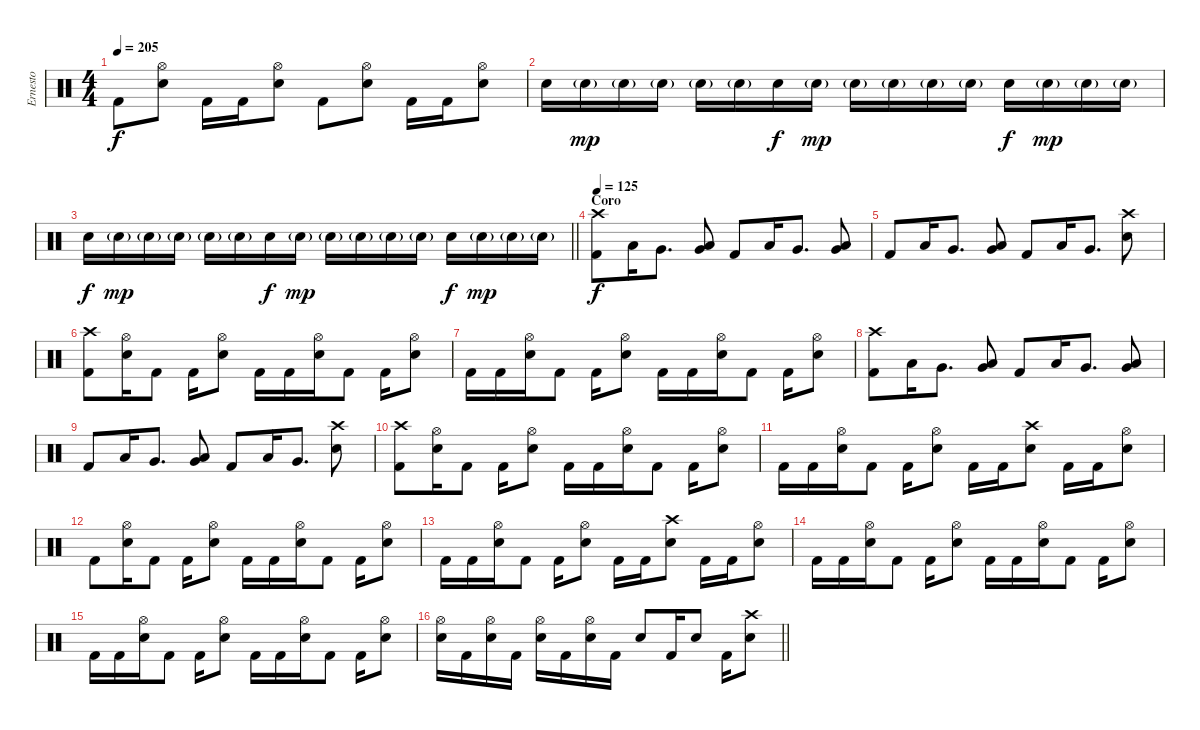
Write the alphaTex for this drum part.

\track ("Ernesto" "Ernesto") {instrument percussion}
\staff {score}
\articulation defaults
\ts (4 4)
\tempo 205
\clef neutral
\ks c "Kick (hit) 2".8{dy f}
("Hi-Hat (open)" "Electric Snare (hit)").8 "Kick (hit) 2".16 "Kick (hit) 2".16 ("Hi-Hat (open)" "Electric Snare (hit)").8 "Kick (hit) 2".8 ("Hi-Hat (open)" "Electric Snare (hit)").8 "Kick (hit) 2".16 "Kick (hit) 2".16 ("Hi-Hat (open)" "Electric Snare (hit)").8 |
"Electric Snare (hit)".16 "Electric Snare (hit)"{g}.16{dy mp} "Electric Snare (hit)"{g}.16 "Electric Snare (hit)"{g}.16 "Electric Snare (hit)"{g}.16 "Electric Snare (hit)"{g}.16 "Electric Snare (hit)".16{dy f} "Electric Snare (hit)"{g}.16{dy mp} "Electric Snare (hit)"{g}.16 "Electric Snare (hit)"{g}.16 "Electric Snare (hit)"{g}.16 "Electric Snare (hit)"{g}.16 "Electric Snare (hit)".16{dy f} "Electric Snare (hit)"{g}.16{dy mp} "Electric Snare (hit)"{g}.16 "Electric Snare (hit)"{g}.16 |
\barLineRight lightlight "Electric Snare (hit)".16{dy f} "Electric Snare (hit)"{g}.16{dy mp} "Electric Snare (hit)"{g}.16 "Electric Snare (hit)"{g}.16 "Electric Snare (hit)"{g}.16 "Electric Snare (hit)"{g}.16 "Electric Snare (hit)".16{dy f} "Electric Snare (hit)"{g}.16{dy mp} "Electric Snare (hit)"{g}.16 "Electric Snare (hit)"{g}.16 "Electric Snare (hit)"{g}.16 "Electric Snare (hit)"{g}.16 "Electric Snare (hit)".16{dy f} "Electric Snare (hit)"{g}.16{dy mp} "Electric Snare (hit)"{g}.16 "Electric Snare (hit)"{g}.16
|
\section ("" "Coro")
\tempo 125
("Crash high (hit)" "Kick (hit) 2").8{dy f} "Low Tom (hit)".16 "Very Low Tom (hit)".8{d} ("Low Tom (hit)" "Very Low Tom (hit)").8 "Kick (hit) 2".8 "Low Tom (hit)".16 "Very Low Tom (hit)".8{d} ("Low Tom (hit)" "Very Low Tom (hit)").8 |
"Kick (hit) 2".8 "Low Tom (hit)".16 "Very Low Tom (hit)".8{d} ("Low Tom (hit)" "Very Low Tom (hit)").8 "Kick (hit) 2".8 "Low Tom (hit)".16 "Very Low Tom (hit)".8{d} ("Crash high (hit)" "Electric Snare (hit)").8 |
("Crash high (hit)" "Kick (hit) 2").8 ("Hi-Hat (open)" "Electric Snare (hit)").16 "Kick (hit) 2".8 "Kick (hit) 2".16 ("Hi-Hat (open)" "Electric Snare (hit)").8 "Kick (hit) 2".16 "Kick (hit) 2".16 ("Hi-Hat (open)" "Electric Snare (hit)").16 "Kick (hit) 2".8 "Kick (hit) 2".16 ("Hi-Hat (open)" "Electric Snare (hit)").8 |
"Kick (hit) 2".16 "Kick (hit) 2".16 ("Hi-Hat (open)" "Electric Snare (hit)").16 "Kick (hit) 2".8 "Kick (hit) 2".16 ("Hi-Hat (open)" "Electric Snare (hit)").8 "Kick (hit) 2".16 "Kick (hit) 2".16 ("Hi-Hat (open)" "Electric Snare (hit)").16 "Kick (hit) 2".8 "Kick (hit) 2".16 ("Hi-Hat (open)" "Electric Snare (hit)").8 |
("Crash high (hit)" "Kick (hit) 2").8 "Low Tom (hit)".16 "Very Low Tom (hit)".8{d} ("Low Tom (hit)" "Very Low Tom (hit)").8 "Kick (hit) 2".8 "Low Tom (hit)".16 "Very Low Tom (hit)".8{d} ("Low Tom (hit)" "Very Low Tom (hit)").8 |
"Kick (hit) 2".8 "Low Tom (hit)".16 "Very Low Tom (hit)".8{d} ("Low Tom (hit)" "Very Low Tom (hit)").8 "Kick (hit) 2".8 "Low Tom (hit)".16 "Very Low Tom (hit)".8{d} ("Crash high (hit)" "Electric Snare (hit)").8 |
("Crash high (hit)" "Kick (hit) 2").8 ("Hi-Hat (open)" "Electric Snare (hit)").16 "Kick (hit) 2".8 "Kick (hit) 2".16 ("Hi-Hat (open)" "Electric Snare (hit)").8 "Kick (hit) 2".16 "Kick (hit) 2".16 ("Hi-Hat (open)" "Electric Snare (hit)").16 "Kick (hit) 2".8 "Kick (hit) 2".16 ("Hi-Hat (open)" "Electric Snare (hit)").8 |
"Kick (hit) 2".16 "Kick (hit) 2".16 ("Hi-Hat (open)" "Electric Snare (hit)").16 "Kick (hit) 2".8 "Kick (hit) 2".16 ("Hi-Hat (open)" "Electric Snare (hit)").8 "Kick (hit) 2".16 "Kick (hit) 2".16 ("Crash high (hit)" "Electric Snare (hit)").8 "Kick (hit) 2".16 "Kick (hit) 2".16 ("Hi-Hat (open)" "Electric Snare (hit)").8 |
"Kick (hit) 2".8 ("Hi-Hat (open)" "Electric Snare (hit)").16 "Kick (hit) 2".8 "Kick (hit) 2".16 ("Hi-Hat (open)" "Electric Snare (hit)").8 "Kick (hit) 2".16 "Kick (hit) 2".16 ("Hi-Hat (open)" "Electric Snare (hit)").16 "Kick (hit) 2".8 "Kick (hit) 2".16 ("Hi-Hat (open)" "Electric Snare (hit)").8 |
"Kick (hit) 2".16 "Kick (hit) 2".16 ("Hi-Hat (open)" "Electric Snare (hit)").16 "Kick (hit) 2".8 "Kick (hit) 2".16 ("Hi-Hat (open)" "Electric Snare (hit)").8 "Kick (hit) 2".16 "Kick (hit) 2".16 ("Crash high (hit)" "Electric Snare (hit)").8 "Kick (hit) 2".16 "Kick (hit) 2".16 ("Hi-Hat (open)" "Electric Snare (hit)").8 |
"Kick (hit) 2".16 "Kick (hit) 2".16 ("Hi-Hat (open)" "Electric Snare (hit)").16 "Kick (hit) 2".8 "Kick (hit) 2".16 ("Hi-Hat (open)" "Electric Snare (hit)").8 "Kick (hit) 2".16 "Kick (hit) 2".16 ("Hi-Hat (open)" "Electric Snare (hit)").16 "Kick (hit) 2".8 "Kick (hit) 2".16 ("Hi-Hat (open)" "Electric Snare (hit)").8 |
"Kick (hit) 2".16 "Kick (hit) 2".16 ("Hi-Hat (open)" "Electric Snare (hit)").16 "Kick (hit) 2".8 "Kick (hit) 2".16 ("Hi-Hat (open)" "Electric Snare (hit)").8 "Kick (hit) 2".16 "Kick (hit) 2".16 ("Hi-Hat (open)" "Electric Snare (hit)").16 "Kick (hit) 2".8 "Kick (hit) 2".16 ("Hi-Hat (open)" "Electric Snare (hit)").8 |
\barLineRight lightlight
("Hi-Hat (open)" "Electric Snare (hit)").16 "Kick (hit) 2".16 ("Hi-Hat (open)" "Electric Snare (hit)").16 "Kick (hit) 2".16 ("Hi-Hat (open)" "Electric Snare (hit)").16 "Kick (hit) 2".16 ("Hi-Hat (open)" "Electric Snare (hit)").16 "Kick (hit) 2".16 "Electric Snare (hit)".8 "Kick (hit) 2".16 "Electric Snare (hit)".8 "Kick (hit) 2".16 ("Crash high (hit)" "Electric Snare (hit)").8
